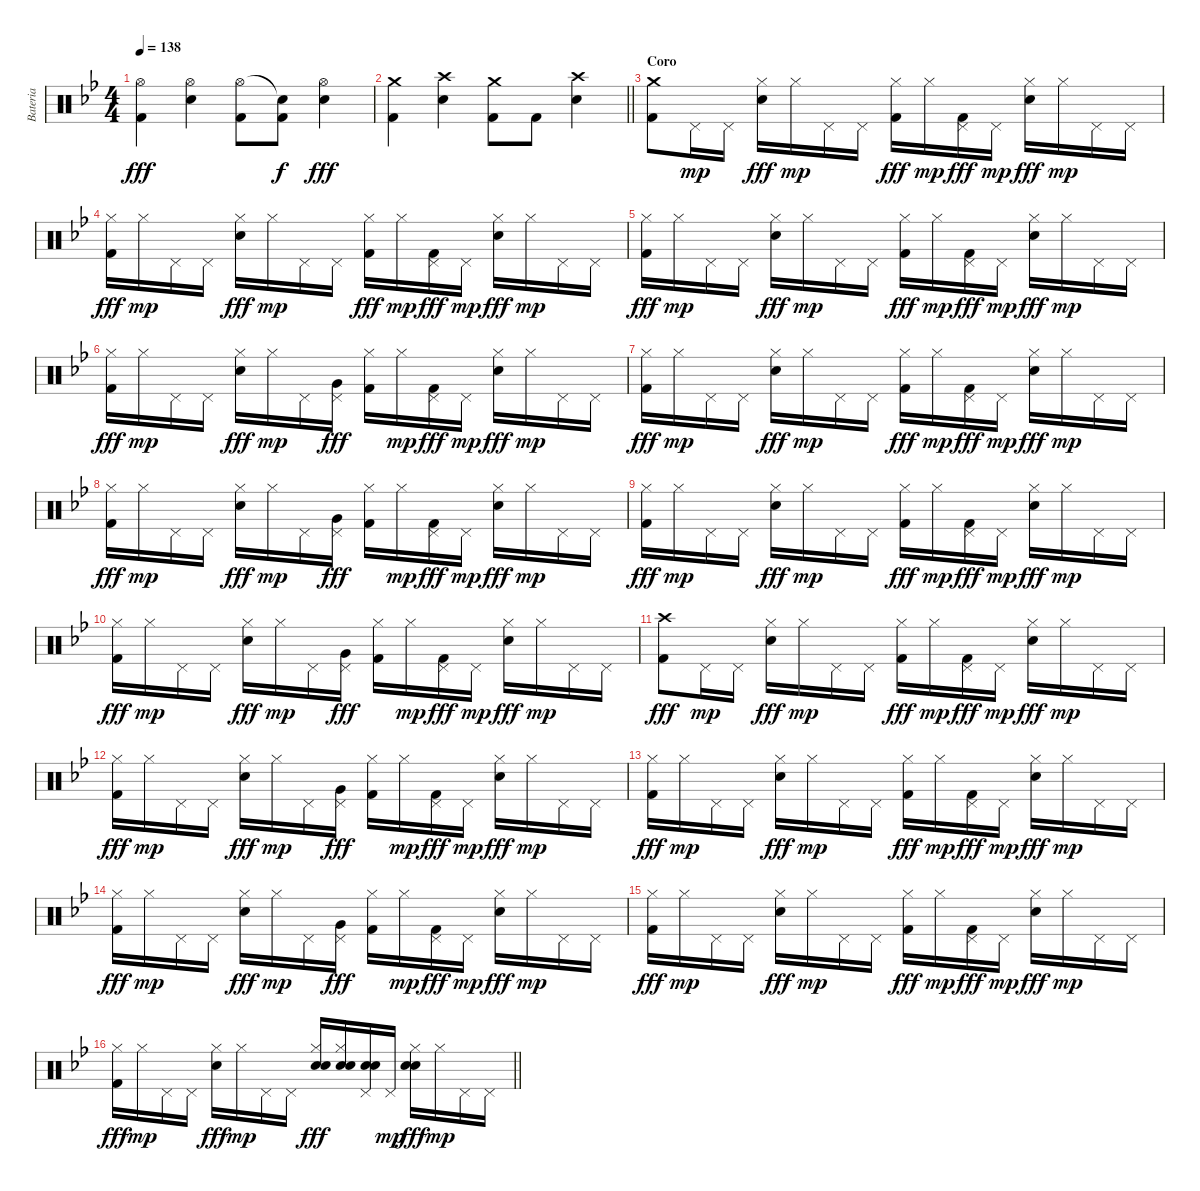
\track ("Bateria" "Bateria") {instrument percussion}
\staff {score}
\articulation defaults
\ts (4 4)
\tempo 138
\clef neutral
\ks bb
("Hi-Hat (open)" "Kick (hit) 2").4{dy fff} ("Hi-Hat (open)" "Snare (hit) 2").4 ("Hi-Hat (open)" "Kick (hit) 2").8 ("Snare (hit)"{t} "Kick (hit) 2").8{dy f} ("Hi-Hat (open)" "Snare (hit) 2").4{dy fff} |
\barLineRight lightlight
("Crash medium (hit)" "Kick (hit) 2").4 ("Crash high (hit)" "Snare (hit) 2").4 ("Crash medium (hit)" "Kick (hit) 2").8 "Kick (hit) 2".8 ("Crash high (hit)" "Snare (hit) 2").4 |
\section ("" "Coro")
("Crash medium (hit)" "Kick (hit) 2").8 "Pedal Hi-Hat (hit)".16{dy mp} "Pedal Hi-Hat (hit)".16 ("Hi-Hat (closed)" "Electric Snare (hit)").16{dy fff} "Hi-Hat (closed)".16{dy mp} "Pedal Hi-Hat (hit)".16 "Pedal Hi-Hat (hit)".16 ("Hi-Hat (closed)" "Kick (hit) 2").16{dy fff} "Hi-Hat (closed)".16{dy mp} ("Pedal Hi-Hat (hit)" "Kick (hit) 2").16{dy fff} "Pedal Hi-Hat (hit)".16{dy mp} ("Hi-Hat (closed)" "Electric Snare (hit)").16{dy fff} "Hi-Hat (closed)".16{dy mp} "Pedal Hi-Hat (hit)".16 "Pedal Hi-Hat (hit)".16 |
("Hi-Hat (closed)" "Kick (hit) 2").16{dy fff} "Hi-Hat (closed)".16{dy mp} "Pedal Hi-Hat (hit)".16 "Pedal Hi-Hat (hit)".16 ("Hi-Hat (closed)" "Electric Snare (hit)").16{dy fff} "Hi-Hat (closed)".16{dy mp} "Pedal Hi-Hat (hit)".16 "Pedal Hi-Hat (hit)".16 ("Hi-Hat (closed)" "Kick (hit) 2").16{dy fff} "Hi-Hat (closed)".16{dy mp} ("Pedal Hi-Hat (hit)" "Kick (hit) 2").16{dy fff} "Pedal Hi-Hat (hit)".16{dy mp} ("Hi-Hat (closed)" "Electric Snare (hit)").16{dy fff} "Hi-Hat (closed)".16{dy mp} "Pedal Hi-Hat (hit)".16 "Pedal Hi-Hat (hit)".16 |
("Hi-Hat (closed)" "Kick (hit) 2").16{dy fff} "Hi-Hat (closed)".16{dy mp} "Pedal Hi-Hat (hit)".16 "Pedal Hi-Hat (hit)".16 ("Hi-Hat (closed)" "Electric Snare (hit)").16{dy fff} "Hi-Hat (closed)".16{dy mp} "Pedal Hi-Hat (hit)".16 "Pedal Hi-Hat (hit)".16 ("Hi-Hat (closed)" "Kick (hit) 2").16{dy fff} "Hi-Hat (closed)".16{dy mp} ("Pedal Hi-Hat (hit)" "Kick (hit) 2").16{dy fff} "Pedal Hi-Hat (hit)".16{dy mp} ("Hi-Hat (closed)" "Electric Snare (hit)").16{dy fff} "Hi-Hat (closed)".16{dy mp} "Pedal Hi-Hat (hit)".16 "Pedal Hi-Hat (hit)".16 |
("Hi-Hat (closed)" "Kick (hit) 2").16{dy fff} "Hi-Hat (closed)".16{dy mp} "Pedal Hi-Hat (hit)".16 "Pedal Hi-Hat (hit)".16 ("Hi-Hat (closed)" "Electric Snare (hit)").16{dy fff} "Hi-Hat (closed)".16{dy mp} "Pedal Hi-Hat (hit)".16 ("Pedal Hi-Hat (hit)" "Very Low Tom (hit)").16{dy fff} ("Hi-Hat (closed)" "Kick (hit) 2").16 "Hi-Hat (closed)".16{dy mp} ("Pedal Hi-Hat (hit)" "Kick (hit) 2").16{dy fff} "Pedal Hi-Hat (hit)".16{dy mp} ("Hi-Hat (closed)" "Electric Snare (hit)").16{dy fff} "Hi-Hat (closed)".16{dy mp} "Pedal Hi-Hat (hit)".16 "Pedal Hi-Hat (hit)".16 |
("Hi-Hat (closed)" "Kick (hit) 2").16{dy fff} "Hi-Hat (closed)".16{dy mp} "Pedal Hi-Hat (hit)".16 "Pedal Hi-Hat (hit)".16 ("Hi-Hat (closed)" "Electric Snare (hit)").16{dy fff} "Hi-Hat (closed)".16{dy mp} "Pedal Hi-Hat (hit)".16 "Pedal Hi-Hat (hit)".16 ("Hi-Hat (closed)" "Kick (hit) 2").16{dy fff} "Hi-Hat (closed)".16{dy mp} ("Pedal Hi-Hat (hit)" "Kick (hit) 2").16{dy fff} "Pedal Hi-Hat (hit)".16{dy mp} ("Hi-Hat (closed)" "Electric Snare (hit)").16{dy fff} "Hi-Hat (closed)".16{dy mp} "Pedal Hi-Hat (hit)".16 "Pedal Hi-Hat (hit)".16 |
("Hi-Hat (closed)" "Kick (hit) 2").16{dy fff} "Hi-Hat (closed)".16{dy mp} "Pedal Hi-Hat (hit)".16 "Pedal Hi-Hat (hit)".16 ("Hi-Hat (closed)" "Electric Snare (hit)").16{dy fff} "Hi-Hat (closed)".16{dy mp} "Pedal Hi-Hat (hit)".16 ("Pedal Hi-Hat (hit)" "Very Low Tom (hit)").16{dy fff} ("Hi-Hat (closed)" "Kick (hit) 2").16 "Hi-Hat (closed)".16{dy mp} ("Pedal Hi-Hat (hit)" "Kick (hit) 2").16{dy fff} "Pedal Hi-Hat (hit)".16{dy mp} ("Hi-Hat (closed)" "Electric Snare (hit)").16{dy fff} "Hi-Hat (closed)".16{dy mp} "Pedal Hi-Hat (hit)".16 "Pedal Hi-Hat (hit)".16 |
("Hi-Hat (closed)" "Kick (hit) 2").16{dy fff} "Hi-Hat (closed)".16{dy mp} "Pedal Hi-Hat (hit)".16 "Pedal Hi-Hat (hit)".16 ("Hi-Hat (closed)" "Electric Snare (hit)").16{dy fff} "Hi-Hat (closed)".16{dy mp} "Pedal Hi-Hat (hit)".16 "Pedal Hi-Hat (hit)".16 ("Hi-Hat (closed)" "Kick (hit) 2").16{dy fff} "Hi-Hat (closed)".16{dy mp} ("Pedal Hi-Hat (hit)" "Kick (hit) 2").16{dy fff} "Pedal Hi-Hat (hit)".16{dy mp} ("Hi-Hat (closed)" "Electric Snare (hit)").16{dy fff} "Hi-Hat (closed)".16{dy mp} "Pedal Hi-Hat (hit)".16 "Pedal Hi-Hat (hit)".16 |
("Hi-Hat (closed)" "Kick (hit) 2").16{dy fff} "Hi-Hat (closed)".16{dy mp} "Pedal Hi-Hat (hit)".16 "Pedal Hi-Hat (hit)".16 ("Hi-Hat (closed)" "Electric Snare (hit)").16{dy fff} "Hi-Hat (closed)".16{dy mp} "Pedal Hi-Hat (hit)".16 ("Pedal Hi-Hat (hit)" "Very Low Tom (hit)").16{dy fff} ("Hi-Hat (closed)" "Kick (hit) 2").16 "Hi-Hat (closed)".16{dy mp} ("Pedal Hi-Hat (hit)" "Kick (hit) 2").16{dy fff} "Pedal Hi-Hat (hit)".16{dy mp} ("Hi-Hat (closed)" "Electric Snare (hit)").16{dy fff} "Hi-Hat (closed)".16{dy mp} "Pedal Hi-Hat (hit)".16 "Pedal Hi-Hat (hit)".16 |
("Crash high (hit)" "Kick (hit) 2").8{dy fff} "Pedal Hi-Hat (hit)".16{dy mp} "Pedal Hi-Hat (hit)".16 ("Hi-Hat (closed)" "Electric Snare (hit)").16{dy fff} "Hi-Hat (closed)".16{dy mp} "Pedal Hi-Hat (hit)".16 "Pedal Hi-Hat (hit)".16 ("Hi-Hat (closed)" "Kick (hit) 2").16{dy fff} "Hi-Hat (closed)".16{dy mp} ("Pedal Hi-Hat (hit)" "Kick (hit) 2").16{dy fff} "Pedal Hi-Hat (hit)".16{dy mp} ("Hi-Hat (closed)" "Electric Snare (hit)").16{dy fff} "Hi-Hat (closed)".16{dy mp} "Pedal Hi-Hat (hit)".16 "Pedal Hi-Hat (hit)".16 |
("Hi-Hat (closed)" "Kick (hit) 2").16{dy fff} "Hi-Hat (closed)".16{dy mp} "Pedal Hi-Hat (hit)".16 "Pedal Hi-Hat (hit)".16 ("Hi-Hat (closed)" "Electric Snare (hit)").16{dy fff} "Hi-Hat (closed)".16{dy mp} "Pedal Hi-Hat (hit)".16 ("Pedal Hi-Hat (hit)" "Very Low Tom (hit)").16{dy fff} ("Hi-Hat (closed)" "Kick (hit) 2").16 "Hi-Hat (closed)".16{dy mp} ("Pedal Hi-Hat (hit)" "Kick (hit) 2").16{dy fff} "Pedal Hi-Hat (hit)".16{dy mp} ("Hi-Hat (closed)" "Electric Snare (hit)").16{dy fff} "Hi-Hat (closed)".16{dy mp} "Pedal Hi-Hat (hit)".16 "Pedal Hi-Hat (hit)".16 |
("Hi-Hat (closed)" "Kick (hit) 2").16{dy fff} "Hi-Hat (closed)".16{dy mp} "Pedal Hi-Hat (hit)".16 "Pedal Hi-Hat (hit)".16 ("Hi-Hat (closed)" "Electric Snare (hit)").16{dy fff} "Hi-Hat (closed)".16{dy mp} "Pedal Hi-Hat (hit)".16 "Pedal Hi-Hat (hit)".16 ("Hi-Hat (closed)" "Kick (hit) 2").16{dy fff} "Hi-Hat (closed)".16{dy mp} ("Pedal Hi-Hat (hit)" "Kick (hit) 2").16{dy fff} "Pedal Hi-Hat (hit)".16{dy mp} ("Hi-Hat (closed)" "Electric Snare (hit)").16{dy fff} "Hi-Hat (closed)".16{dy mp} "Pedal Hi-Hat (hit)".16 "Pedal Hi-Hat (hit)".16 |
("Hi-Hat (closed)" "Kick (hit) 2").16{dy fff} "Hi-Hat (closed)".16{dy mp} "Pedal Hi-Hat (hit)".16 "Pedal Hi-Hat (hit)".16 ("Hi-Hat (closed)" "Electric Snare (hit)").16{dy fff} "Hi-Hat (closed)".16{dy mp} "Pedal Hi-Hat (hit)".16 ("Pedal Hi-Hat (hit)" "Very Low Tom (hit)").16{dy fff} ("Hi-Hat (closed)" "Kick (hit) 2").16 "Hi-Hat (closed)".16{dy mp} ("Pedal Hi-Hat (hit)" "Kick (hit) 2").16{dy fff} "Pedal Hi-Hat (hit)".16{dy mp} ("Hi-Hat (closed)" "Electric Snare (hit)").16{dy fff} "Hi-Hat (closed)".16{dy mp} "Pedal Hi-Hat (hit)".16 "Pedal Hi-Hat (hit)".16 |
("Hi-Hat (closed)" "Kick (hit) 2").16{dy fff} "Hi-Hat (closed)".16{dy mp} "Pedal Hi-Hat (hit)".16 "Pedal Hi-Hat (hit)".16 ("Hi-Hat (closed)" "Electric Snare (hit)").16{dy fff} "Hi-Hat (closed)".16{dy mp} "Pedal Hi-Hat (hit)".16 "Pedal Hi-Hat (hit)".16 ("Hi-Hat (closed)" "Kick (hit) 2").16{dy fff} "Hi-Hat (closed)".16{dy mp} ("Pedal Hi-Hat (hit)" "Kick (hit) 2").16{dy fff} "Pedal Hi-Hat (hit)".16{dy mp} ("Hi-Hat (closed)" "Electric Snare (hit)").16{dy fff} "Hi-Hat (closed)".16{dy mp} "Pedal Hi-Hat (hit)".16 "Pedal Hi-Hat (hit)".16 |
\barLineRight lightlight
("Hi-Hat (closed)" "Kick (hit) 2").16{dy fff} "Hi-Hat (closed)".16{dy mp} "Pedal Hi-Hat (hit)".16 "Pedal Hi-Hat (hit)".16 ("Hi-Hat (closed)" "Electric Snare (hit)").16{dy fff} "Hi-Hat (closed)".16{dy mp} "Pedal Hi-Hat (hit)".16 "Pedal Hi-Hat (hit)".16 ("Hi-Hat (closed)" "Electric Snare (hit)" "Snare (hit) 2").16{dy fff} ("Hi-Hat (closed)" "Electric Snare (hit)" "Snare (hit) 2").16 ("Pedal Hi-Hat (hit)" "Electric Snare (hit)" "Snare (hit) 2").16 "Pedal Hi-Hat (hit)".16{dy mp} ("Hi-Hat (closed)" "Snare (hit) 2" "Electric Snare (hit)").16{dy fff} "Hi-Hat (closed)".16{dy mp} "Pedal Hi-Hat (hit)".16 "Pedal Hi-Hat (hit)".16
